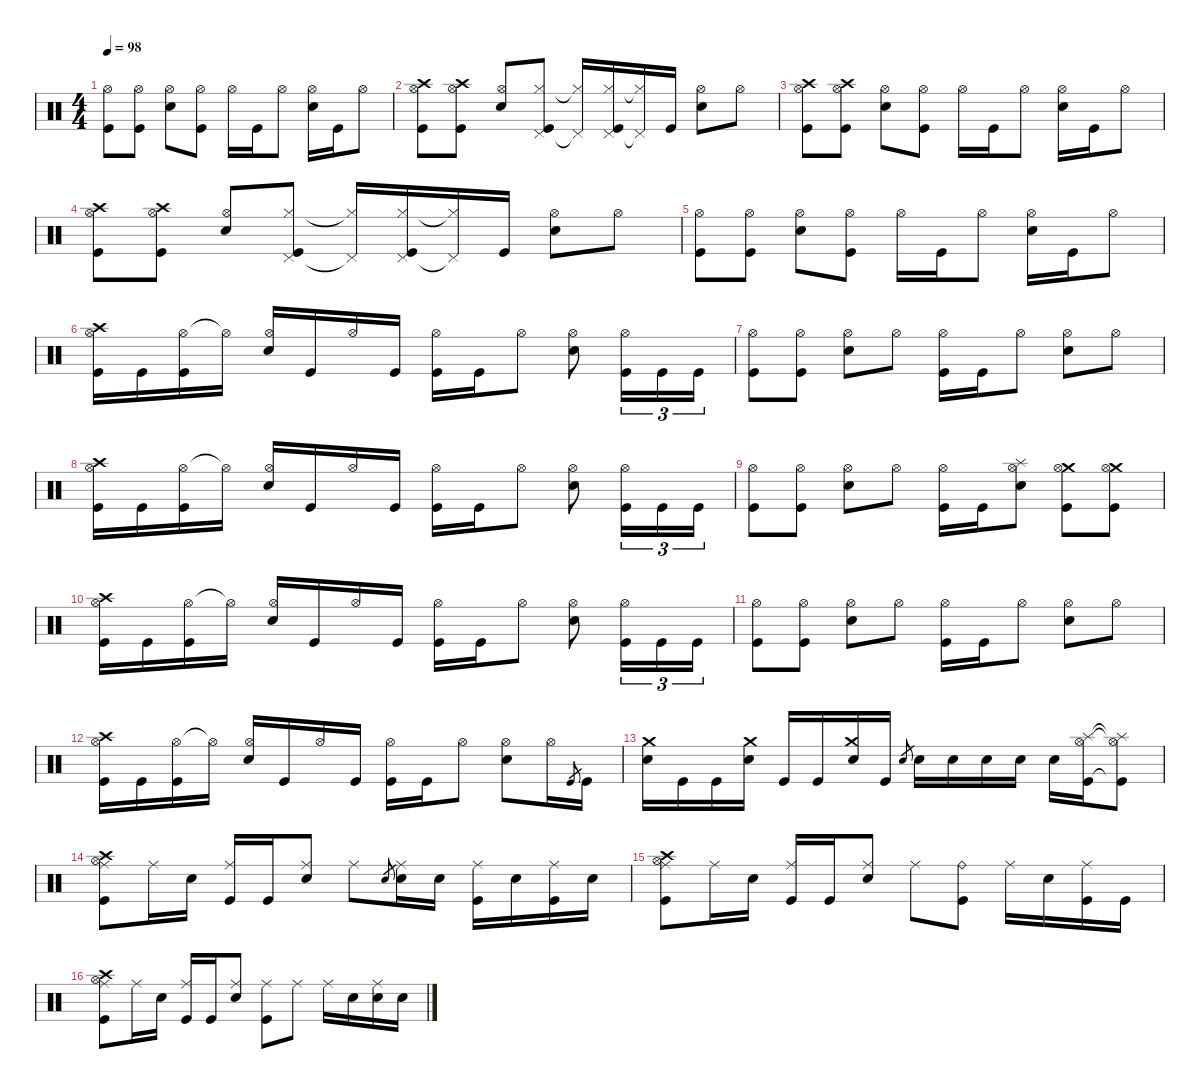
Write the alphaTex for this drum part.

\defaultSystemsLayout 4
\hideDynamics
\bracketExtendMode nobrackets
\singleTrackTrackNamePolicy hidden
\multiTrackTrackNamePolicy hidden
\firstSystemTrackNameMode fullname
\otherSystemsTrackNameOrientation horizontal
\track ("Drums" "drm.") {instrument percussion}
\staff {score}
\articulation defaults
\ts (4 4)
\tempo 98
\clef neutral
\ks aminor
("Hi-Hat (open)" "Kick (hit)").8{dy f beam Down} ("Hi-Hat (open)" "Kick (hit)").8{beam Down} ("Hi-Hat (open)" "Snare (hit) 2").8{beam Down} ("Hi-Hat (open)" "Kick (hit)").8{beam Down} "Hi-Hat (open)".16{beam Down} "Kick (hit)".16{beam Down} "Hi-Hat (open)".8{beam Down} ("Hi-Hat (open)" "Snare (hit) 2").16{beam Down} "Kick (hit)".16{beam Down} "Hi-Hat (open)".8{beam Down} |
("Crash high (hit)" "Hi-Hat (open)" "Kick (hit)").8{beam Down} ("Crash high (hit)" "Hi-Hat (open)" "Kick (hit)").8{beam Down} ("Hi-Hat (open)" "Snare (hit) 2").8{beam Up} ("Pedal Hi-Hat (hit)" "Hi-Hat (closed)" "Kick (hit)").8{beam Up} ("Pedal Hi-Hat (hit)"{t} "Hi-Hat (closed)"{t}).16{beam Up} ("Hi-Hat (closed)" "Pedal Hi-Hat (hit)" "Kick (hit)").16{beam Up} ("Hi-Hat (closed)"{t} "Pedal Hi-Hat (hit)"{t}).16{beam Up} "Kick (hit)".16{beam Up} ("Hi-Hat (open)" "Snare (hit) 2").8{beam Down} "Hi-Hat (open)".8{beam Down} |
("Crash high (hit)" "Hi-Hat (open)" "Kick (hit)").8{beam Down} ("Crash high (hit)" "Hi-Hat (open)" "Kick (hit)").8{beam Down} ("Hi-Hat (open)" "Snare (hit) 2").8{beam Down} ("Hi-Hat (open)" "Kick (hit)").8{beam Down} "Hi-Hat (open)".16{beam Down} "Kick (hit)".16{beam Down} "Hi-Hat (open)".8{beam Down} ("Hi-Hat (open)" "Snare (hit) 2").16{beam Down} "Kick (hit)".16{beam Down} "Hi-Hat (open)".8{beam Down} |
("Crash high (hit)" "Hi-Hat (open)" "Kick (hit)").8{beam Down} ("Crash high (hit)" "Hi-Hat (open)" "Kick (hit)").8{beam Down} ("Hi-Hat (open)" "Snare (hit) 2").8{beam Up} ("Pedal Hi-Hat (hit)" "Hi-Hat (closed)" "Kick (hit)").8{beam Up} ("Pedal Hi-Hat (hit)"{t} "Hi-Hat (closed)"{t}).16{beam Up} ("Hi-Hat (closed)" "Pedal Hi-Hat (hit)" "Kick (hit)").16{beam Up} ("Hi-Hat (closed)"{t} "Pedal Hi-Hat (hit)"{t}).16{beam Up} "Kick (hit)".16{beam Up} ("Hi-Hat (open)" "Snare (hit) 2").8{beam Down} "Hi-Hat (open)".8{beam Down} |
("Hi-Hat (open)" "Kick (hit)").8{beam Down} ("Hi-Hat (open)" "Kick (hit)").8{beam Down} ("Hi-Hat (open)" "Snare (hit) 2").8{beam Down} ("Hi-Hat (open)" "Kick (hit)").8{beam Down} "Hi-Hat (open)".16{beam Down} "Kick (hit)".16{beam Down} "Hi-Hat (open)".8{beam Down} ("Hi-Hat (open)" "Snare (hit) 2").16{beam Down} "Kick (hit)".16{beam Down} "Hi-Hat (open)".8{beam Down} |
("Crash high (hit)" "Hi-Hat (open)" "Kick (hit)").16{beam Down} "Kick (hit)".16{beam Down} ("Hi-Hat (open)" "Kick (hit)").16{beam Down} "Hi-Hat (open)"{t}.16{beam Down} ("Hi-Hat (open)" "Snare (hit) 2").16{beam Up} "Kick (hit)".16{beam Up} "Hi-Hat (open)".16{beam Up} "Kick (hit)".16{beam Up} ("Hi-Hat (open)" "Kick (hit)").16{beam Down} "Kick (hit)".16{beam Down} "Hi-Hat (open)".8{beam Down} ("Hi-Hat (open)" "Snare (hit) 2").8{beam Down} ("Hi-Hat (open)" "Kick (hit)").16{tu (3 2) beam Down} "Kick (hit)".16{tu (3 2) beam Down} "Kick (hit)".16{tu (3 2) beam Down} |
("Hi-Hat (open)" "Kick (hit)").8{beam Down} ("Hi-Hat (open)" "Kick (hit)").8{beam Down} ("Hi-Hat (open)" "Snare (hit) 2").8{beam Down} "Hi-Hat (open)".8{beam Down} ("Hi-Hat (open)" "Kick (hit)").16{beam Down} "Kick (hit)".16{beam Down} "Hi-Hat (open)".8{beam Down} ("Hi-Hat (open)" "Snare (hit) 2").8{beam Down} "Hi-Hat (open)".8{beam Down} |
("Crash high (hit)" "Hi-Hat (open)" "Kick (hit)").16{beam Down} "Kick (hit)".16{beam Down} ("Hi-Hat (open)" "Kick (hit)").16{beam Down} "Hi-Hat (open)"{t}.16{beam Down} ("Hi-Hat (open)" "Snare (hit) 2").16{beam Up} "Kick (hit)".16{beam Up} "Hi-Hat (open)".16{beam Up} "Kick (hit)".16{beam Up} ("Hi-Hat (open)" "Kick (hit)").16{beam Down} "Kick (hit)".16{beam Down} "Hi-Hat (open)".8{beam Down} ("Hi-Hat (open)" "Snare (hit) 2").8{beam Down} ("Hi-Hat (open)" "Kick (hit)").16{tu (3 2) beam Down} "Kick (hit)".16{tu (3 2) beam Down} "Kick (hit)".16{tu (3 2) beam Down} |
("Hi-Hat (open)" "Kick (hit)").8{beam Down} ("Hi-Hat (open)" "Kick (hit)").8{beam Down} ("Hi-Hat (open)" "Snare (hit) 2").8{beam Down} "Hi-Hat (open)".8{beam Down} ("Hi-Hat (open)" "Kick (hit)").16{beam Down} "Kick (hit)".16{beam Down} ("Splash (hit)" "Hi-Hat (open)" "Snare (hit) 2").8{beam Down} ("Crash medium (hit)" "Hi-Hat (open)" "Kick (hit)").8{beam Down} ("Crash medium (hit)" "Hi-Hat (open)" "Kick (hit)").8{beam Down} |
("Crash high (hit)" "Hi-Hat (open)" "Kick (hit)").16{beam Down} "Kick (hit)".16{beam Down} ("Hi-Hat (open)" "Kick (hit)").16{beam Down} "Hi-Hat (open)"{t}.16{beam Down} ("Hi-Hat (open)" "Snare (hit) 2").16{beam Up} "Kick (hit)".16{beam Up} "Hi-Hat (open)".16{beam Up} "Kick (hit)".16{beam Up} ("Hi-Hat (open)" "Kick (hit)").16{beam Down} "Kick (hit)".16{beam Down} "Hi-Hat (open)".8{beam Down} ("Hi-Hat (open)" "Snare (hit) 2").8{beam Down} ("Hi-Hat (open)" "Kick (hit)").16{tu (3 2) beam Down} "Kick (hit)".16{tu (3 2) beam Down} "Kick (hit)".16{tu (3 2) beam Down} |
("Hi-Hat (open)" "Kick (hit)").8{beam Down} ("Hi-Hat (open)" "Kick (hit)").8{beam Down} ("Hi-Hat (open)" "Snare (hit) 2").8{beam Down} "Hi-Hat (open)".8{beam Down} ("Hi-Hat (open)" "Kick (hit)").16{beam Down} "Kick (hit)".16{beam Down} "Hi-Hat (open)".8{beam Down} ("Hi-Hat (open)" "Snare (hit) 2").8{beam Down} "Hi-Hat (open)".8{beam Down} |
("Crash high (hit)" "Hi-Hat (open)" "Kick (hit)").16{beam Down} "Kick (hit)".16{beam Down} ("Hi-Hat (open)" "Kick (hit)").16{beam Down} "Hi-Hat (open)"{t}.16{beam Down} ("Hi-Hat (open)" "Snare (hit) 2").16{beam Up} "Kick (hit)".16{beam Up} "Hi-Hat (open)".16{beam Up} "Kick (hit)".16{beam Up} ("Hi-Hat (open)" "Kick (hit)").16{beam Down} "Kick (hit)".16{beam Down} "Hi-Hat (open)".8{beam Down} ("Hi-Hat (open)" "Snare (hit) 2").8{beam Down} "Hi-Hat (open)".16{beam Down} "Kick (hit)".8{gr dy mf beam Up} "Kick (hit)".16{dy f beam Down} |
("Crash medium (hit)" "Snare (hit) 2").16{beam Down} "Kick (hit)".16{beam Down} "Kick (hit)".16{beam Down} ("Crash medium (hit)" "Snare (hit) 2").16{beam Down} "Kick (hit)".16{beam Up} "Kick (hit)".16{beam Up} ("Crash medium (hit)" "Snare (hit) 2").16{beam Up} "Kick (hit)".16{beam Up} "Electric Snare (hit)".8{gr dy mf beam Up} "Snare (hit) 2".16{dy f beam Down} "Snare (hit) 2".16{beam Down} "Snare (hit) 2".16{beam Down} "Snare (hit) 2".16{beam Down} "Snare (hit) 2".16{beam Down} ("Splash (hit)" "Hi-Hat (open)" "Kick (hit)").16{beam Down} ("Splash (hit)"{t} "Hi-Hat (open)"{t} "Kick (hit)"{t}).8{beam Down} |
("Ride (middle)" "Crash high (hit)" "Hi-Hat (open)" "Kick (hit)").8{beam Down} "Ride (middle)".16{beam Down} "Snare (hit) 2".16{beam Down} ("Ride (middle)" "Kick (hit)").16{beam Up} "Kick (hit)".16{beam Up} ("Ride (middle)" "Snare (hit) 2").8{beam Up} "Ride (middle)".8{beam Down} "Electric Snare (hit)".8{gr dy mf beam Up} ("Ride (middle)" "Snare (hit) 2").16{dy f beam Down} "Snare (hit) 2".16{beam Down} ("Ride (middle)" "Kick (hit)").16{beam Down} "Snare (hit) 2".16{beam Down} ("Ride (middle)" "Kick (hit)").16{beam Down} "Snare (hit) 2".16{beam Down} |
("Ride (middle)" "Crash high (hit)" "Hi-Hat (open)" "Kick (hit)").8{beam Down} "Ride (middle)".16{beam Down} "Snare (hit) 2".16{beam Down} ("Ride (middle)" "Kick (hit)").16{beam Up} "Kick (hit)".16{beam Up} ("Ride (middle)" "Snare (hit) 2").8{beam Up} "Ride (middle)".8{beam Down} ("Ride (bell)" "Kick (hit)").8{beam Down} "Ride (middle)".16{beam Down} "Snare (hit) 2".16{beam Down} ("Ride (middle)" "Kick (hit)").16{beam Down} "Kick (hit)".16{beam Down} |
("Ride (middle)" "Crash high (hit)" "Hi-Hat (open)" "Kick (hit)").8{beam Down} "Ride (middle)".16{beam Down} "Snare (hit) 2".16{beam Down} ("Ride (middle)" "Kick (hit)").16{beam Up} "Kick (hit)".16{beam Up} ("Ride (middle)" "Snare (hit) 2").8{beam Up} ("Ride (middle)" "Kick (hit)").8{beam Down} "Ride (middle)".8{beam Down} "Ride (middle)".16{beam Down} "Snare (hit) 2".16{beam Down} ("Ride (middle)" "Snare (hit) 2").16{beam Down} "Snare (hit) 2".16{beam Down}
